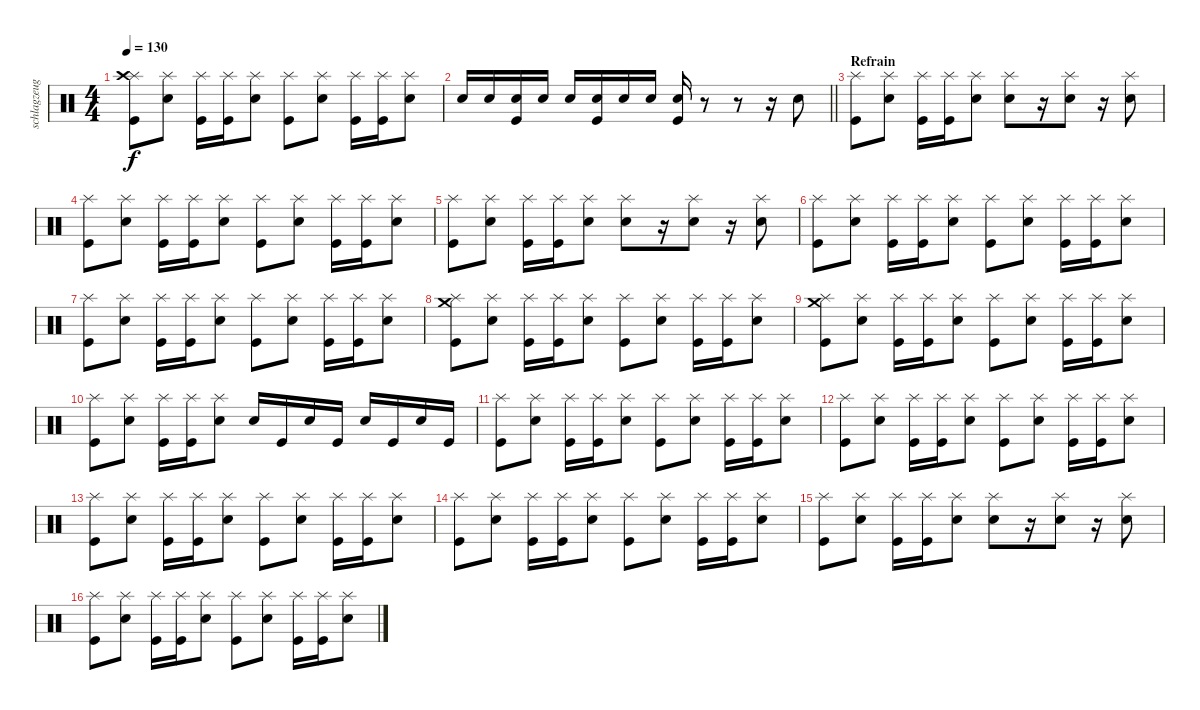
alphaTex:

\track ("schlagzeug" "schlagzeug") {instrument percussion}
\staff {score}
\articulation defaults
\ts (4 4)
\tempo 130
\clef neutral
\ks c
("Kick (hit)" "Splash (hit)" "Crash high (hit)").8{dy f} ("Snare (hit) 2" "Splash (hit)").8 ("Kick (hit)" "Splash (hit)").16 ("Kick (hit)" "Splash (hit)").16 ("Snare (hit) 2" "Splash (hit)").8 ("Kick (hit)" "Splash (hit)").8 ("Snare (hit) 2" "Splash (hit)").8 ("Kick (hit)" "Splash (hit)").16 ("Kick (hit)" "Splash (hit)").16 ("Snare (hit) 2" "Splash (hit)").8 |
\barLineRight lightlight "Snare (hit) 2".16 "Snare (hit) 2".16
("Snare (hit) 2" "Kick (hit)").16 "Snare (hit) 2".16 "Snare (hit) 2".16 ("Snare (hit) 2" "Kick (hit)").16 "Snare (hit) 2".16 "Snare (hit) 2".16 ("Snare (hit) 2" "Kick (hit)").16 r.8 r.8 r.16 "Snare (hit) 2".8 |
\section ("" "Refrain")
("Kick (hit)" "Splash (hit)").8 ("Snare (hit) 2" "Splash (hit)").8 ("Kick (hit)" "Splash (hit)").16 ("Kick (hit)" "Splash (hit)").16 ("Snare (hit) 2" "Splash (hit)").8 ("Snare (hit) 2" "Splash (hit)").8 r.16 ("Snare (hit) 2" "Splash (hit)").8 r.16 ("Snare (hit) 2" "Splash (hit)").8 |
("Kick (hit)" "Splash (hit)").8 ("Snare (hit) 2" "Splash (hit)").8 ("Kick (hit)" "Splash (hit)").16 ("Kick (hit)" "Splash (hit)").16 ("Snare (hit) 2" "Splash (hit)").8 ("Kick (hit)" "Splash (hit)").8 ("Snare (hit) 2" "Splash (hit)").8 ("Kick (hit)" "Splash (hit)").16 ("Kick (hit)" "Splash (hit)").16 ("Snare (hit) 2" "Splash (hit)").8 |
("Kick (hit)" "Splash (hit)").8 ("Snare (hit) 2" "Splash (hit)").8 ("Kick (hit)" "Splash (hit)").16 ("Kick (hit)" "Splash (hit)").16 ("Snare (hit) 2" "Splash (hit)").8 ("Snare (hit) 2" "Splash (hit)").8 r.16 ("Snare (hit) 2" "Splash (hit)").8 r.16 ("Snare (hit) 2" "Splash (hit)").8 |
("Kick (hit)" "Splash (hit)").8 ("Snare (hit) 2" "Splash (hit)").8 ("Kick (hit)" "Splash (hit)").16 ("Kick (hit)" "Splash (hit)").16 ("Snare (hit) 2" "Splash (hit)").8 ("Kick (hit)" "Splash (hit)").8 ("Snare (hit) 2" "Splash (hit)").8 ("Kick (hit)" "Splash (hit)").16 ("Kick (hit)" "Splash (hit)").16 ("Snare (hit) 2" "Splash (hit)").8 |
("Kick (hit)" "Splash (hit)").8 ("Snare (hit) 2" "Splash (hit)").8 ("Kick (hit)" "Splash (hit)").16 ("Kick (hit)" "Splash (hit)").16 ("Snare (hit) 2" "Splash (hit)").8 ("Kick (hit)" "Splash (hit)").8 ("Snare (hit) 2" "Splash (hit)").8 ("Kick (hit)" "Splash (hit)").16 ("Kick (hit)" "Splash (hit)").16 ("Snare (hit) 2" "Splash (hit)").8 |
("Kick (hit)" "Splash (hit)" "Crash medium (hit)").8 ("Snare (hit) 2" "Splash (hit)").8 ("Kick (hit)" "Splash (hit)").16 ("Kick (hit)" "Splash (hit)").16 ("Snare (hit) 2" "Splash (hit)").8 ("Kick (hit)" "Splash (hit)").8 ("Snare (hit) 2" "Splash (hit)").8 ("Kick (hit)" "Splash (hit)").16 ("Kick (hit)" "Splash (hit)").16 ("Snare (hit) 2" "Splash (hit)").8 |
("Kick (hit)" "Splash (hit)" "Crash medium (hit)").8 ("Snare (hit) 2" "Splash (hit)").8 ("Kick (hit)" "Splash (hit)").16 ("Kick (hit)" "Splash (hit)").16 ("Snare (hit) 2" "Splash (hit)").8 ("Kick (hit)" "Splash (hit)").8 ("Snare (hit) 2" "Splash (hit)").8 ("Kick (hit)" "Splash (hit)").16 ("Kick (hit)" "Splash (hit)").16 ("Snare (hit) 2" "Splash (hit)").8 |
("Kick (hit)" "Splash (hit)").8 ("Snare (hit) 2" "Splash (hit)").8 ("Kick (hit)" "Splash (hit)").16 ("Kick (hit)" "Splash (hit)").16 ("Snare (hit) 2" "Splash (hit)").8 "Snare (hit) 2".16 "Kick (hit)".16 "Snare (hit) 2".16 "Kick (hit)".16 "Snare (hit) 2".16 "Kick (hit)".16 "Snare (hit) 2".16 "Kick (hit)".16 |
("Kick (hit)" "Splash (hit)").8 ("Snare (hit) 2" "Splash (hit)").8 ("Kick (hit)" "Splash (hit)").16 ("Kick (hit)" "Splash (hit)").16 ("Snare (hit) 2" "Splash (hit)").8 ("Kick (hit)" "Splash (hit)").8 ("Snare (hit) 2" "Splash (hit)").8 ("Kick (hit)" "Splash (hit)").16 ("Kick (hit)" "Splash (hit)").16 ("Snare (hit) 2" "Splash (hit)").8 |
("Kick (hit)" "Splash (hit)").8 ("Snare (hit) 2" "Splash (hit)").8 ("Kick (hit)" "Splash (hit)").16 ("Kick (hit)" "Splash (hit)").16 ("Snare (hit) 2" "Splash (hit)").8 ("Kick (hit)" "Splash (hit)").8 ("Snare (hit) 2" "Splash (hit)").8 ("Kick (hit)" "Splash (hit)").16 ("Kick (hit)" "Splash (hit)").16 ("Snare (hit) 2" "Splash (hit)").8 |
("Kick (hit)" "Splash (hit)").8 ("Snare (hit) 2" "Splash (hit)").8 ("Kick (hit)" "Splash (hit)").16 ("Kick (hit)" "Splash (hit)").16 ("Snare (hit) 2" "Splash (hit)").8 ("Kick (hit)" "Splash (hit)").8 ("Snare (hit) 2" "Splash (hit)").8 ("Kick (hit)" "Splash (hit)").16 ("Kick (hit)" "Splash (hit)").16 ("Snare (hit) 2" "Splash (hit)").8 |
("Kick (hit)" "Splash (hit)").8 ("Snare (hit) 2" "Splash (hit)").8 ("Kick (hit)" "Splash (hit)").16 ("Kick (hit)" "Splash (hit)").16 ("Snare (hit) 2" "Splash (hit)").8 ("Kick (hit)" "Splash (hit)").8 ("Snare (hit) 2" "Splash (hit)").8 ("Kick (hit)" "Splash (hit)").16 ("Kick (hit)" "Splash (hit)").16 ("Snare (hit) 2" "Splash (hit)").8 |
("Kick (hit)" "Splash (hit)").8 ("Snare (hit) 2" "Splash (hit)").8 ("Kick (hit)" "Splash (hit)").16 ("Kick (hit)" "Splash (hit)").16 ("Snare (hit) 2" "Splash (hit)").8 ("Snare (hit) 2" "Splash (hit)").8 r.16 ("Snare (hit) 2" "Splash (hit)").8 r.16 ("Snare (hit) 2" "Splash (hit)").8 |
("Kick (hit)" "Splash (hit)").8 ("Snare (hit) 2" "Splash (hit)").8 ("Kick (hit)" "Splash (hit)").16 ("Kick (hit)" "Splash (hit)").16 ("Snare (hit) 2" "Splash (hit)").8 ("Kick (hit)" "Splash (hit)").8 ("Snare (hit) 2" "Splash (hit)").8 ("Kick (hit)" "Splash (hit)").16 ("Kick (hit)" "Splash (hit)").16 ("Snare (hit) 2" "Splash (hit)").8
